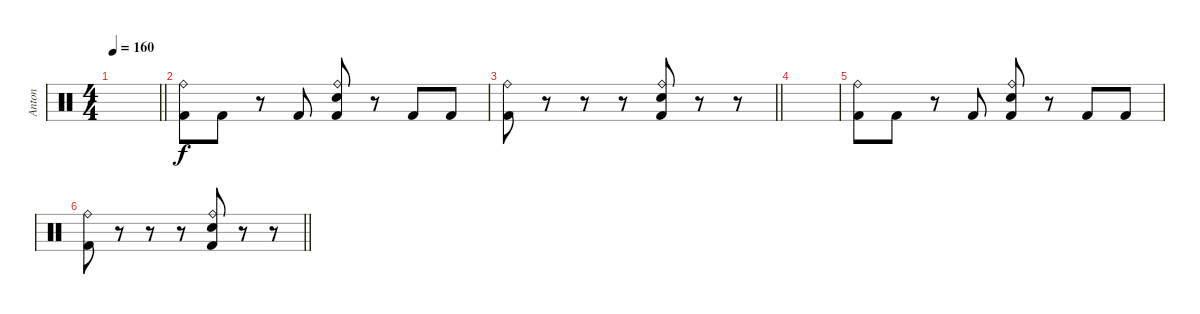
\track ("Anton" "Anton") {instrument percussion}
\staff {score}
\articulation defaults
\ts (4 4)
\tempo 160
\clef neutral
\barLineRight lightlight
\ks c
|
("Kick (hit) 2" "Ride (bell)").8 "Kick (hit) 2".8 r.8 "Kick (hit) 2".8 ("Kick (hit) 2" "Electric Snare (hit)" "Ride (bell)").8 r.8 "Kick (hit) 2".8 "Kick (hit) 2".8 |
\barLineRight lightlight
("Kick (hit) 2" "Ride (bell)").8 r.8 r.8 r.8 ("Kick (hit) 2" "Electric Snare (hit)" "Ride (bell)").8 r.8 r.8 |
|
("Kick (hit) 2" "Ride (bell)").8 "Kick (hit) 2".8 r.8 "Kick (hit) 2".8 ("Kick (hit) 2" "Electric Snare (hit)" "Ride (bell)").8 r.8 "Kick (hit) 2".8 "Kick (hit) 2".8 |
\barLineRight lightlight
("Kick (hit) 2" "Ride (bell)").8 r.8 r.8 r.8 ("Kick (hit) 2" "Electric Snare (hit)" "Ride (bell)").8 r.8 r.8
